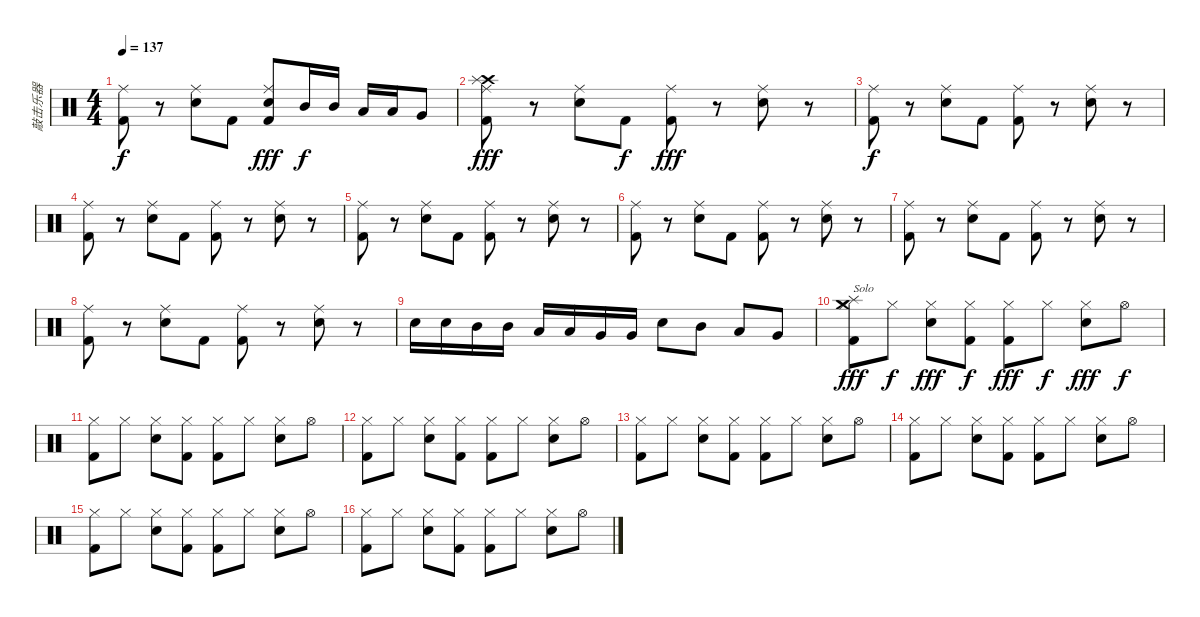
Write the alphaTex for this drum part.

\track ("敲击乐器" "敲击乐器") {instrument percussion}
\staff {score}
\articulation defaults
\ts (4 4)
\tempo 137
\clef neutral
\ks c
("Kick (hit) 2" "Ride (middle)").8{dy f} r.8 ("Snare (hit) 2" "Ride (middle)").8 "Kick (hit) 2".8 ("Kick (hit) 2" "Snare (hit) 2" "Ride (middle)").8{dy fff} "Mid Tom (hit)".16{dy f} "Mid Tom (hit)".16 "Low Tom (hit)".16 "Low Tom (hit)".16 "Very Low Tom (hit)".8 |
("Crash high (hit)" "Splash (hit)" "Kick (hit) 2" "Ride (middle)").8{dy fff} r.8 ("Snare (hit) 2" "Ride (middle)").8 "Kick (hit) 2".8{dy f} ("Kick (hit) 2" "Ride (middle)").8{dy fff} r.8 ("Snare (hit) 2" "Ride (middle)").8 r.8 |
("Kick (hit) 2" "Ride (middle)").8{dy f} r.8 ("Snare (hit) 2" "Ride (middle)").8 "Kick (hit) 2".8 ("Kick (hit) 2" "Ride (middle)").8 r.8 ("Snare (hit) 2" "Ride (middle)").8 r.8 |
("Kick (hit) 2" "Ride (middle)").8 r.8 ("Snare (hit) 2" "Ride (middle)").8 "Kick (hit) 2".8 ("Kick (hit) 2" "Ride (middle)").8 r.8 ("Snare (hit) 2" "Ride (middle)").8 r.8 |
("Kick (hit) 2" "Ride (middle)").8 r.8 ("Snare (hit) 2" "Ride (middle)").8 "Kick (hit) 2".8 ("Kick (hit) 2" "Ride (middle)").8 r.8 ("Snare (hit) 2" "Ride (middle)").8 r.8 |
("Kick (hit) 2" "Ride (middle)").8 r.8 ("Snare (hit) 2" "Ride (middle)").8 "Kick (hit) 2".8 ("Kick (hit) 2" "Ride (middle)").8 r.8 ("Snare (hit) 2" "Ride (middle)").8 r.8 |
("Kick (hit) 2" "Ride (middle)").8 r.8 ("Snare (hit) 2" "Ride (middle)").8 "Kick (hit) 2".8 ("Kick (hit) 2" "Ride (middle)").8 r.8 ("Snare (hit) 2" "Ride (middle)").8 r.8 |
("Kick (hit) 2" "Ride (middle)").8 r.8 ("Snare (hit) 2" "Ride (middle)").8 "Kick (hit) 2".8 ("Kick (hit) 2" "Ride (middle)").8 r.8 ("Snare (hit) 2" "Ride (middle)").8 r.8 |
"Snare (hit) 2".16 "Snare (hit) 2".16 "Mid Tom (hit)".16 "Mid Tom (hit)".16 "Low Tom (hit)".16 "Low Tom (hit)".16 "Very Low Tom (hit)".16 "Very Low Tom (hit)".16 "Snare (hit) 2".8 "Mid Tom (hit)".8 "Low Tom (hit)".8 "Very Low Tom (hit)".8 |
("Crash medium (hit)" "Splash (hit)" "Kick (hit) 2" "Hi-Hat (closed)").8{txt "Solo" dy fff} "Hi-Hat (closed)".8{dy f} ("Snare (hit) 2" "Hi-Hat (closed)").8{dy fff} ("Kick (hit) 2" "Hi-Hat (closed)").8{dy f} ("Kick (hit) 2" "Hi-Hat (closed)").8{dy fff} "Hi-Hat (closed)".8{dy f} ("Snare (hit) 2" "Hi-Hat (closed)").8{dy fff} "Hi-Hat (open)".8{dy f} |
("Kick (hit) 2" "Hi-Hat (closed)").8 "Hi-Hat (closed)".8 ("Snare (hit) 2" "Hi-Hat (closed)").8 ("Kick (hit) 2" "Hi-Hat (closed)").8 ("Kick (hit) 2" "Hi-Hat (closed)").8 "Hi-Hat (closed)".8 ("Snare (hit) 2" "Hi-Hat (closed)").8 "Hi-Hat (open)".8 |
("Kick (hit) 2" "Hi-Hat (closed)").8 "Hi-Hat (closed)".8 ("Snare (hit) 2" "Hi-Hat (closed)").8 ("Kick (hit) 2" "Hi-Hat (closed)").8 ("Kick (hit) 2" "Hi-Hat (closed)").8 "Hi-Hat (closed)".8 ("Snare (hit) 2" "Hi-Hat (closed)").8 "Hi-Hat (open)".8 |
("Kick (hit) 2" "Hi-Hat (closed)").8 "Hi-Hat (closed)".8 ("Snare (hit) 2" "Hi-Hat (closed)").8 ("Kick (hit) 2" "Hi-Hat (closed)").8 ("Kick (hit) 2" "Hi-Hat (closed)").8 "Hi-Hat (closed)".8 ("Snare (hit) 2" "Hi-Hat (closed)").8 "Hi-Hat (open)".8 |
("Kick (hit) 2" "Hi-Hat (closed)").8 "Hi-Hat (closed)".8 ("Snare (hit) 2" "Hi-Hat (closed)").8 ("Kick (hit) 2" "Hi-Hat (closed)").8 ("Kick (hit) 2" "Hi-Hat (closed)").8 "Hi-Hat (closed)".8 ("Snare (hit) 2" "Hi-Hat (closed)").8 "Hi-Hat (open)".8 |
("Kick (hit) 2" "Hi-Hat (closed)").8 "Hi-Hat (closed)".8 ("Snare (hit) 2" "Hi-Hat (closed)").8 ("Kick (hit) 2" "Hi-Hat (closed)").8 ("Kick (hit) 2" "Hi-Hat (closed)").8 "Hi-Hat (closed)".8 ("Snare (hit) 2" "Hi-Hat (closed)").8 "Hi-Hat (open)".8 |
("Kick (hit) 2" "Hi-Hat (closed)").8 "Hi-Hat (closed)".8 ("Snare (hit) 2" "Hi-Hat (closed)").8 ("Kick (hit) 2" "Hi-Hat (closed)").8 ("Kick (hit) 2" "Hi-Hat (closed)").8 "Hi-Hat (closed)".8 ("Snare (hit) 2" "Hi-Hat (closed)").8 "Hi-Hat (open)".8
